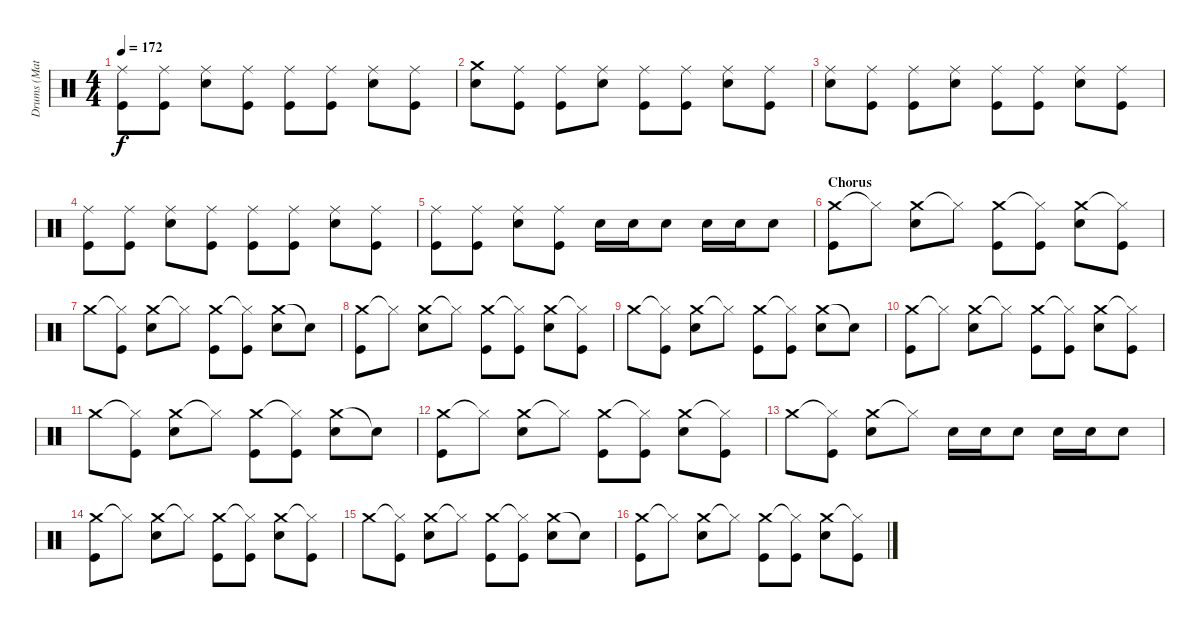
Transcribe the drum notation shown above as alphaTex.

\track ("Drums (Matt)" "Drums (Mat") {instrument percussion}
\staff {score}
\articulation defaults
\ts (4 4)
\tempo 172
\clef neutral
\ks c
("Ride (middle)" "Kick (hit)").8{dy f} ("Ride (middle)" "Kick (hit)").8 ("Ride (middle)" "Electric Snare (hit)").8 ("Ride (middle)" "Kick (hit)").8 ("Ride (middle)" "Kick (hit)").8 ("Ride (middle)" "Kick (hit)").8 ("Ride (middle)" "Electric Snare (hit)").8 ("Ride (middle)" "Kick (hit)").8 |
("Crash medium (hit)" "Electric Snare (hit)").8 ("Ride (middle)" "Kick (hit)").8 ("Ride (middle)" "Kick (hit)").8 ("Ride (middle)" "Electric Snare (hit)").8 ("Ride (middle)" "Kick (hit)").8 ("Ride (middle)" "Kick (hit)").8 ("Ride (middle)" "Electric Snare (hit)").8 ("Ride (middle)" "Kick (hit)").8 |
("Ride (middle)" "Electric Snare (hit)").8 ("Ride (middle)" "Kick (hit)").8 ("Ride (middle)" "Kick (hit)").8 ("Ride (middle)" "Electric Snare (hit)").8 ("Ride (middle)" "Kick (hit)").8 ("Ride (middle)" "Kick (hit)").8 ("Ride (middle)" "Electric Snare (hit)").8 ("Ride (middle)" "Kick (hit)").8 |
("Ride (middle)" "Kick (hit)").8 ("Ride (middle)" "Kick (hit)").8 ("Ride (middle)" "Electric Snare (hit)").8 ("Ride (middle)" "Kick (hit)").8 ("Ride (middle)" "Kick (hit)").8 ("Ride (middle)" "Kick (hit)").8 ("Ride (middle)" "Electric Snare (hit)").8 ("Ride (middle)" "Kick (hit)").8 |
("Ride (middle)" "Kick (hit)").8 ("Ride (middle)" "Kick (hit)").8 ("Ride (middle)" "Electric Snare (hit)").8 ("Ride (middle)" "Kick (hit)").8 "Electric Snare (hit)".16 "Electric Snare (hit)".16 "Electric Snare (hit)".8 "Electric Snare (hit)".16 "Electric Snare (hit)".16 "Electric Snare (hit)".8 |
\section ("" "Chorus")
("Crash medium (hit)" "Kick (hit)").8 "Hi-Hat (closed)"{t}.8 ("Crash medium (hit)" "Electric Snare (hit)").8 "Hi-Hat (closed)"{t}.8 ("Crash medium (hit)" "Kick (hit)").8 ("Hi-Hat (closed)"{t} "Kick (hit)").8 ("Crash medium (hit)" "Electric Snare (hit)").8 ("Hi-Hat (closed)"{t} "Kick (hit)").8 |
"Crash medium (hit)".8 ("Hi-Hat (closed)"{t} "Kick (hit)").8 ("Crash medium (hit)" "Electric Snare (hit)").8 "Hi-Hat (closed)"{t}.8 ("Crash medium (hit)" "Kick (hit)").8 ("Hi-Hat (closed)"{t} "Kick (hit)").8 ("Crash medium (hit)" "Electric Snare (hit)").8 "Snare (hit)"{t}.8 |
("Crash medium (hit)" "Kick (hit)").8 "Hi-Hat (closed)"{t}.8 ("Crash medium (hit)" "Electric Snare (hit)").8 "Hi-Hat (closed)"{t}.8 ("Crash medium (hit)" "Kick (hit)").8 ("Hi-Hat (closed)"{t} "Kick (hit)").8 ("Crash medium (hit)" "Electric Snare (hit)").8 ("Hi-Hat (closed)"{t} "Kick (hit)").8 |
"Crash medium (hit)".8 ("Hi-Hat (closed)"{t} "Kick (hit)").8 ("Crash medium (hit)" "Electric Snare (hit)").8 "Hi-Hat (closed)"{t}.8 ("Crash medium (hit)" "Kick (hit)").8 ("Hi-Hat (closed)"{t} "Kick (hit)").8 ("Crash medium (hit)" "Electric Snare (hit)").8 "Snare (hit)"{t}.8 |
("Crash medium (hit)" "Kick (hit)").8 "Hi-Hat (closed)"{t}.8 ("Crash medium (hit)" "Electric Snare (hit)").8 "Hi-Hat (closed)"{t}.8 ("Crash medium (hit)" "Kick (hit)").8 ("Hi-Hat (closed)"{t} "Kick (hit)").8 ("Crash medium (hit)" "Electric Snare (hit)").8 ("Hi-Hat (closed)"{t} "Kick (hit)").8 |
"Crash medium (hit)".8 ("Hi-Hat (closed)"{t} "Kick (hit)").8 ("Crash medium (hit)" "Electric Snare (hit)").8 "Hi-Hat (closed)"{t}.8 ("Crash medium (hit)" "Kick (hit)").8 ("Hi-Hat (closed)"{t} "Kick (hit)").8 ("Crash medium (hit)" "Electric Snare (hit)").8 "Snare (hit)"{t}.8 |
("Crash medium (hit)" "Kick (hit)").8 "Hi-Hat (closed)"{t}.8 ("Crash medium (hit)" "Electric Snare (hit)").8 "Hi-Hat (closed)"{t}.8 ("Crash medium (hit)" "Kick (hit)").8 ("Hi-Hat (closed)"{t} "Kick (hit)").8 ("Crash medium (hit)" "Electric Snare (hit)").8 ("Hi-Hat (closed)"{t} "Kick (hit)").8 |
"Crash medium (hit)".8 ("Hi-Hat (closed)"{t} "Kick (hit)").8 ("Crash medium (hit)" "Electric Snare (hit)").8 "Hi-Hat (closed)"{t}.8 "Electric Snare (hit)".16 "Electric Snare (hit)".16 "Electric Snare (hit)".8 "Electric Snare (hit)".16 "Electric Snare (hit)".16 "Electric Snare (hit)".8 |
("Crash medium (hit)" "Kick (hit)").8 "Hi-Hat (closed)"{t}.8 ("Crash medium (hit)" "Electric Snare (hit)").8 "Hi-Hat (closed)"{t}.8 ("Crash medium (hit)" "Kick (hit)").8 ("Hi-Hat (closed)"{t} "Kick (hit)").8 ("Crash medium (hit)" "Electric Snare (hit)").8 ("Hi-Hat (closed)"{t} "Kick (hit)").8 |
"Crash medium (hit)".8 ("Hi-Hat (closed)"{t} "Kick (hit)").8 ("Crash medium (hit)" "Electric Snare (hit)").8 "Hi-Hat (closed)"{t}.8 ("Crash medium (hit)" "Kick (hit)").8 ("Hi-Hat (closed)"{t} "Kick (hit)").8 ("Crash medium (hit)" "Electric Snare (hit)").8 "Snare (hit)"{t}.8 |
("Crash medium (hit)" "Kick (hit)").8 "Hi-Hat (closed)"{t}.8 ("Crash medium (hit)" "Electric Snare (hit)").8 "Hi-Hat (closed)"{t}.8 ("Crash medium (hit)" "Kick (hit)").8 ("Hi-Hat (closed)"{t} "Kick (hit)").8 ("Crash medium (hit)" "Electric Snare (hit)").8 ("Hi-Hat (closed)"{t} "Kick (hit)").8
